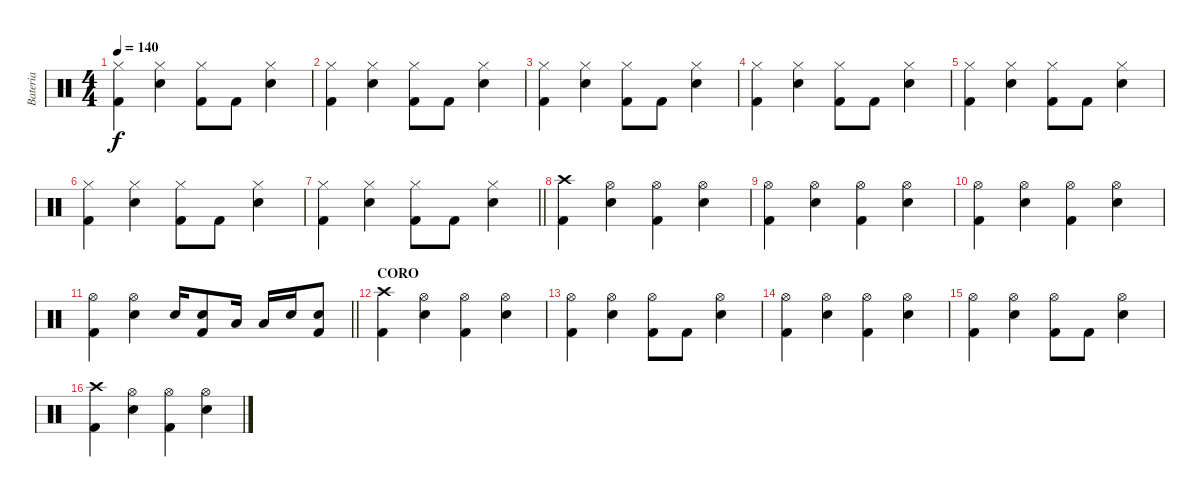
\track ("Bateria" "Bateria") {instrument percussion}
\staff {score}
\articulation defaults
\ts (4 4)
\tempo 140
\clef neutral
\ks c
("Hi-Hat (closed)" "Kick (hit) 2").4{dy f} ("Hi-Hat (closed)" "Electric Snare (hit)").4 ("Hi-Hat (closed)" "Kick (hit) 2").8 "Kick (hit) 2".8 ("Hi-Hat (closed)" "Electric Snare (hit)").4 |
("Hi-Hat (closed)" "Kick (hit) 2").4 ("Hi-Hat (closed)" "Electric Snare (hit)").4 ("Hi-Hat (closed)" "Kick (hit) 2").8 "Kick (hit) 2".8 ("Hi-Hat (closed)" "Electric Snare (hit)").4 |
("Hi-Hat (closed)" "Kick (hit) 2").4 ("Hi-Hat (closed)" "Electric Snare (hit)").4 ("Hi-Hat (closed)" "Kick (hit) 2").8 "Kick (hit) 2".8 ("Hi-Hat (closed)" "Electric Snare (hit)").4 |
("Hi-Hat (closed)" "Kick (hit) 2").4 ("Hi-Hat (closed)" "Electric Snare (hit)").4 ("Hi-Hat (closed)" "Kick (hit) 2").8 "Kick (hit) 2".8 ("Hi-Hat (closed)" "Electric Snare (hit)").4 |
("Hi-Hat (closed)" "Kick (hit) 2").4 ("Hi-Hat (closed)" "Electric Snare (hit)").4 ("Hi-Hat (closed)" "Kick (hit) 2").8 "Kick (hit) 2".8 ("Hi-Hat (closed)" "Electric Snare (hit)").4 |
("Hi-Hat (closed)" "Kick (hit) 2").4 ("Hi-Hat (closed)" "Electric Snare (hit)").4 ("Hi-Hat (closed)" "Kick (hit) 2").8 "Kick (hit) 2".8 ("Hi-Hat (closed)" "Electric Snare (hit)").4 |
\barLineRight lightlight
("Hi-Hat (closed)" "Kick (hit) 2").4 ("Hi-Hat (closed)" "Electric Snare (hit)").4 ("Hi-Hat (closed)" "Kick (hit) 2").8 "Kick (hit) 2".8 ("Hi-Hat (closed)" "Electric Snare (hit)").4 |
("Crash high (hit)" "Kick (hit) 2").4 ("Hi-Hat (open)" "Electric Snare (hit)").4 ("Hi-Hat (open)" "Kick (hit) 2").4 ("Hi-Hat (open)" "Electric Snare (hit)").4 |
("Hi-Hat (open)" "Kick (hit) 2").4 ("Hi-Hat (open)" "Electric Snare (hit)").4 ("Hi-Hat (open)" "Kick (hit) 2").4 ("Hi-Hat (open)" "Electric Snare (hit)").4 |
("Hi-Hat (open)" "Kick (hit) 2").4 ("Hi-Hat (open)" "Electric Snare (hit)").4 ("Hi-Hat (open)" "Kick (hit) 2").4 ("Hi-Hat (open)" "Electric Snare (hit)").4 |
\barLineRight lightlight
("Hi-Hat (open)" "Kick (hit) 2").4 ("Hi-Hat (open)" "Electric Snare (hit)").4 "Electric Snare (hit)".16 ("Electric Snare (hit)" "Kick (hit) 2").8 "Low Tom (hit)".16 "Low Tom (hit)".16 "Electric Snare (hit)".16 ("Electric Snare (hit)" "Kick (hit) 2").8 |
\section ("" "CORO")
("Crash high (hit)" "Kick (hit) 2").4 ("Hi-Hat (open)" "Electric Snare (hit)").4 ("Hi-Hat (open)" "Kick (hit) 2").4 ("Hi-Hat (open)" "Electric Snare (hit)").4 |
("Hi-Hat (open)" "Kick (hit) 2").4 ("Hi-Hat (open)" "Electric Snare (hit)").4 ("Hi-Hat (open)" "Kick (hit) 2").8 "Kick (hit) 2".8 ("Hi-Hat (open)" "Electric Snare (hit)").4 |
("Hi-Hat (open)" "Kick (hit) 2").4 ("Hi-Hat (open)" "Electric Snare (hit)").4 ("Hi-Hat (open)" "Kick (hit) 2").4 ("Hi-Hat (open)" "Electric Snare (hit)").4 |
("Hi-Hat (open)" "Kick (hit) 2").4 ("Hi-Hat (open)" "Electric Snare (hit)").4 ("Hi-Hat (open)" "Kick (hit) 2").8 "Kick (hit) 2".8 ("Hi-Hat (open)" "Electric Snare (hit)").4 |
("Crash high (hit)" "Kick (hit) 2").4 ("Hi-Hat (open)" "Electric Snare (hit)").4 ("Hi-Hat (open)" "Kick (hit) 2").4 ("Hi-Hat (open)" "Electric Snare (hit)").4
